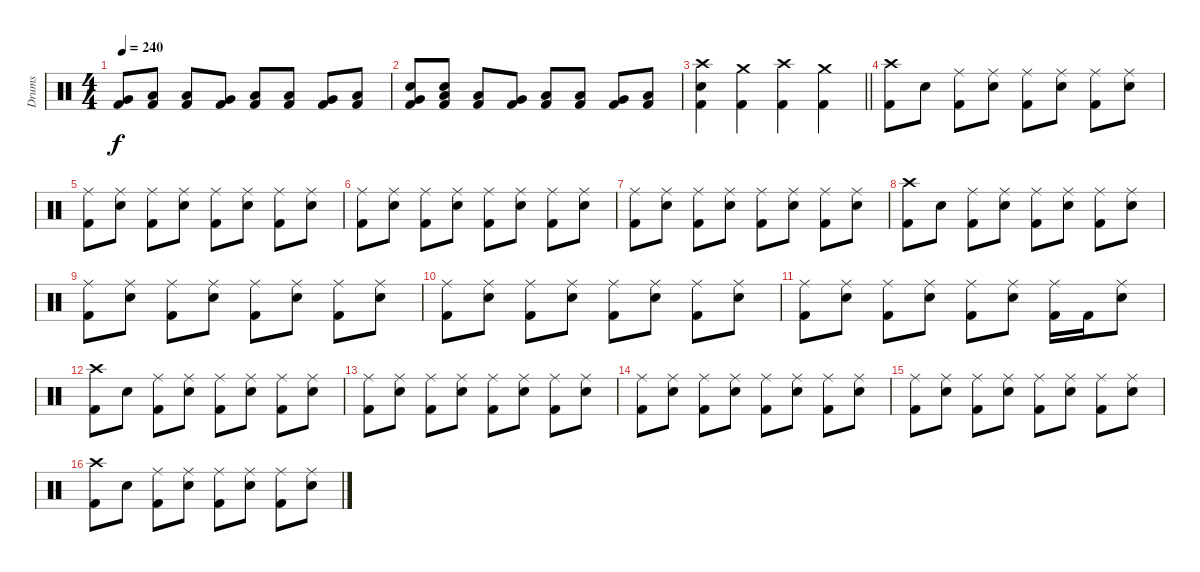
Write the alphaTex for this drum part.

\track ("Drums" "Drums") {instrument percussion}
\staff {score}
\articulation defaults
\ts (4 4)
\tempo 240
\clef neutral
\ks c
("Very Low Tom (hit)" "Kick (hit) 2").8{dy f} ("Low Tom (hit)" "Kick (hit) 2").8 ("Low Floor Tom (hit)" "Kick (hit) 2").8 ("Very Low Tom (hit)" "Kick (hit) 2").8 ("Low Floor Tom (hit)" "Kick (hit) 2").8 ("Low Tom (hit)" "Kick (hit) 2").8 ("Very Low Tom (hit)" "Kick (hit) 2").8 ("Low Floor Tom (hit)" "Kick (hit) 2").8 |
("Very Low Tom (hit)" "Electric Snare (hit)" "Kick (hit) 2").8 ("Low Tom (hit)" "Electric Snare (hit)" "Kick (hit) 2").8 ("Low Floor Tom (hit)" "Kick (hit) 2").8 ("Very Low Tom (hit)" "Kick (hit) 2").8 ("Low Floor Tom (hit)" "Kick (hit) 2").8 ("Low Tom (hit)" "Kick (hit) 2").8 ("Very Low Tom (hit)" "Kick (hit) 2").8 ("Low Floor Tom (hit)" "Kick (hit) 2").8 |
\barLineRight lightlight
("Crash high (hit)" "Electric Snare (hit)" "Kick (hit) 2").4 ("Crash medium (hit)" "Kick (hit) 2").4 ("Crash high (hit)" "Kick (hit) 2").4 ("Crash medium (hit)" "Kick (hit) 2").4 |
("Crash high (hit)" "Kick (hit) 2").8 "Electric Snare (hit)".8 ("Ride (middle)" "Kick (hit) 2").8 ("Ride (middle)" "Electric Snare (hit)").8 ("Ride (middle)" "Kick (hit) 2").8 ("Ride (middle)" "Electric Snare (hit)").8 ("Ride (middle)" "Kick (hit) 2").8 ("Ride (middle)" "Electric Snare (hit)").8 |
("Ride (middle)" "Kick (hit) 2").8 ("Ride (middle)" "Electric Snare (hit)").8 ("Ride (middle)" "Kick (hit) 2").8 ("Ride (middle)" "Electric Snare (hit)").8 ("Ride (middle)" "Kick (hit) 2").8 ("Ride (middle)" "Electric Snare (hit)").8 ("Ride (middle)" "Kick (hit) 2").8 ("Ride (middle)" "Electric Snare (hit)").8 |
("Ride (middle)" "Kick (hit) 2").8 ("Ride (middle)" "Electric Snare (hit)").8 ("Ride (middle)" "Kick (hit) 2").8 ("Ride (middle)" "Electric Snare (hit)").8 ("Ride (middle)" "Kick (hit) 2").8 ("Ride (middle)" "Electric Snare (hit)").8 ("Ride (middle)" "Kick (hit) 2").8 ("Ride (middle)" "Electric Snare (hit)").8 |
("Ride (middle)" "Kick (hit) 2").8 ("Ride (middle)" "Electric Snare (hit)").8 ("Ride (middle)" "Kick (hit) 2").8 ("Ride (middle)" "Electric Snare (hit)").8 ("Ride (middle)" "Kick (hit) 2").8 ("Ride (middle)" "Electric Snare (hit)").8 ("Ride (middle)" "Kick (hit) 2").8 ("Ride (middle)" "Electric Snare (hit)").8 |
("Crash high (hit)" "Kick (hit) 2").8 "Electric Snare (hit)".8 ("Ride (middle)" "Kick (hit) 2").8 ("Ride (middle)" "Electric Snare (hit)").8 ("Ride (middle)" "Kick (hit) 2").8 ("Ride (middle)" "Electric Snare (hit)").8 ("Ride (middle)" "Kick (hit) 2").8 ("Ride (middle)" "Electric Snare (hit)").8 |
("Ride (middle)" "Kick (hit) 2").8 ("Ride (middle)" "Electric Snare (hit)").8 ("Ride (middle)" "Kick (hit) 2").8 ("Ride (middle)" "Electric Snare (hit)").8 ("Ride (middle)" "Kick (hit) 2").8 ("Ride (middle)" "Electric Snare (hit)").8 ("Ride (middle)" "Kick (hit) 2").8 ("Ride (middle)" "Electric Snare (hit)").8 |
("Ride (middle)" "Kick (hit) 2").8 ("Ride (middle)" "Electric Snare (hit)").8 ("Ride (middle)" "Kick (hit) 2").8 ("Ride (middle)" "Electric Snare (hit)").8 ("Ride (middle)" "Kick (hit) 2").8 ("Ride (middle)" "Electric Snare (hit)").8 ("Ride (middle)" "Kick (hit) 2").8 ("Ride (middle)" "Electric Snare (hit)").8 |
("Ride (middle)" "Kick (hit) 2").8 ("Ride (middle)" "Electric Snare (hit)").8 ("Ride (middle)" "Kick (hit) 2").8 ("Ride (middle)" "Electric Snare (hit)").8 ("Ride (middle)" "Kick (hit) 2").8 ("Ride (middle)" "Electric Snare (hit)").8 ("Ride (middle)" "Kick (hit) 2").16 "Kick (hit) 2".16 ("Ride (middle)" "Electric Snare (hit)").8 |
("Crash high (hit)" "Kick (hit) 2").8 "Electric Snare (hit)".8 ("Ride (middle)" "Kick (hit) 2").8 ("Ride (middle)" "Electric Snare (hit)").8 ("Ride (middle)" "Kick (hit) 2").8 ("Ride (middle)" "Electric Snare (hit)").8 ("Ride (middle)" "Kick (hit) 2").8 ("Ride (middle)" "Electric Snare (hit)").8 |
("Ride (middle)" "Kick (hit) 2").8 ("Ride (middle)" "Electric Snare (hit)").8 ("Ride (middle)" "Kick (hit) 2").8 ("Ride (middle)" "Electric Snare (hit)").8 ("Ride (middle)" "Kick (hit) 2").8 ("Ride (middle)" "Electric Snare (hit)").8 ("Ride (middle)" "Kick (hit) 2").8 ("Ride (middle)" "Electric Snare (hit)").8 |
("Ride (middle)" "Kick (hit) 2").8 ("Ride (middle)" "Electric Snare (hit)").8 ("Ride (middle)" "Kick (hit) 2").8 ("Ride (middle)" "Electric Snare (hit)").8 ("Ride (middle)" "Kick (hit) 2").8 ("Ride (middle)" "Electric Snare (hit)").8 ("Ride (middle)" "Kick (hit) 2").8 ("Ride (middle)" "Electric Snare (hit)").8 |
("Ride (middle)" "Kick (hit) 2").8 ("Ride (middle)" "Electric Snare (hit)").8 ("Ride (middle)" "Kick (hit) 2").8 ("Ride (middle)" "Electric Snare (hit)").8 ("Ride (middle)" "Kick (hit) 2").8 ("Ride (middle)" "Electric Snare (hit)").8 ("Ride (middle)" "Kick (hit) 2").8 ("Ride (middle)" "Electric Snare (hit)").8 |
("Crash high (hit)" "Kick (hit) 2").8 "Electric Snare (hit)".8 ("Ride (middle)" "Kick (hit) 2").8 ("Ride (middle)" "Electric Snare (hit)").8 ("Ride (middle)" "Kick (hit) 2").8 ("Ride (middle)" "Electric Snare (hit)").8 ("Ride (middle)" "Kick (hit) 2").8 ("Ride (middle)" "Electric Snare (hit)").8
